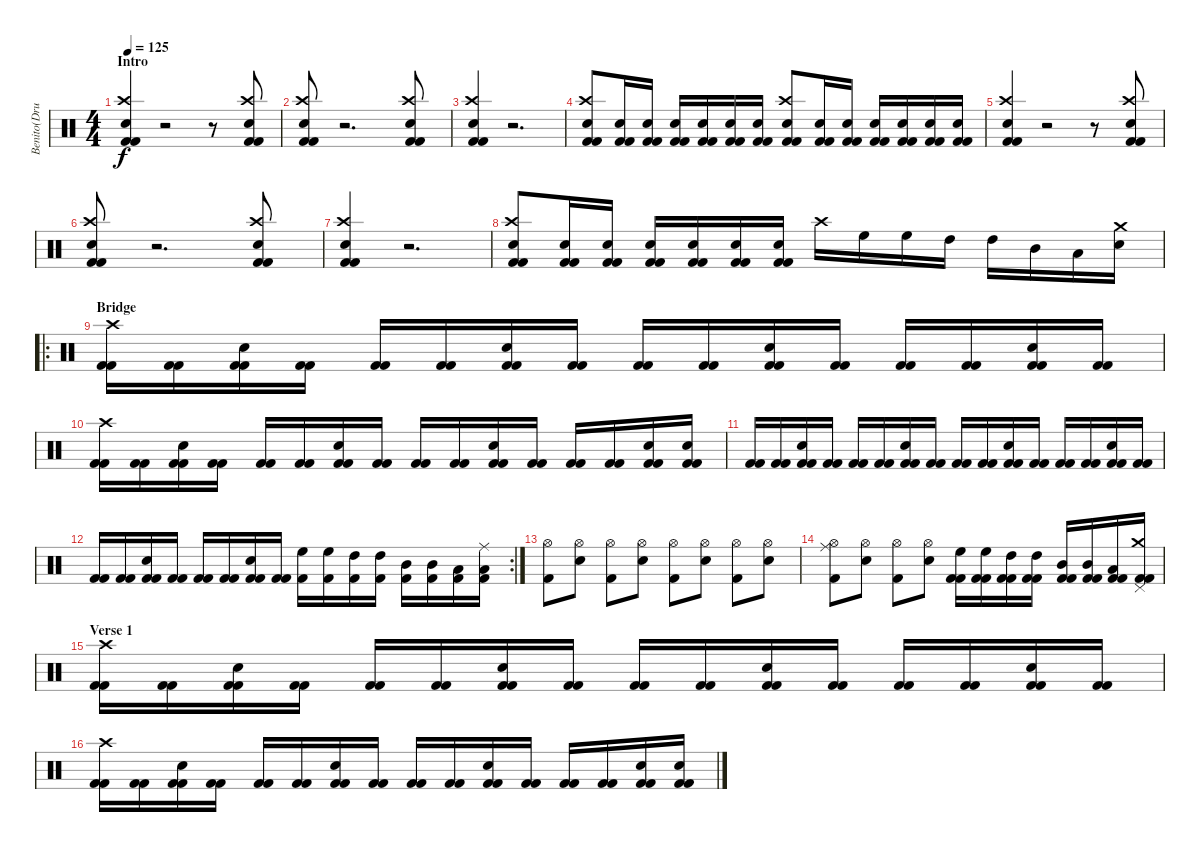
\track ("Benito(Drums)" "Benito(Dru") {instrument percussion}
\staff {score}
\articulation defaults
\ts (4 4)
\section ("" "Intro")
\tempo 125
\clef neutral
\ks c
("Kick (hit) 2" "Kick (hit) 2" "Crash high (hit)" "Electric Snare (hit)").4{dy f} r.2 r.8 ("Kick (hit) 2" "Kick (hit) 2" "Crash high (hit)" "Electric Snare (hit)").8 |
("Kick (hit) 2" "Kick (hit) 2" "Crash high (hit)" "Electric Snare (hit)").8 r.2{d} ("Kick (hit) 2" "Kick (hit) 2" "Crash high (hit)" "Electric Snare (hit)").8 |
("Kick (hit) 2" "Kick (hit) 2" "Crash high (hit)" "Snare (hit) 2").4 r.2{d} |
("Kick (hit) 2" "Kick (hit) 2" "Crash high (hit)" "Electric Snare (hit)").8 ("Kick (hit) 2" "Kick (hit) 2" "Electric Snare (hit)").16 ("Kick (hit) 2" "Kick (hit) 2" "Electric Snare (hit)").16 ("Kick (hit) 2" "Kick (hit) 2" "Electric Snare (hit)").16 ("Kick (hit) 2" "Kick (hit) 2" "Electric Snare (hit)").16 ("Kick (hit) 2" "Kick (hit) 2" "Electric Snare (hit)").16 ("Kick (hit) 2" "Kick (hit) 2" "Electric Snare (hit)").16 ("Kick (hit) 2" "Kick (hit) 2" "Crash high (hit)" "Electric Snare (hit)").8 ("Kick (hit) 2" "Kick (hit) 2" "Electric Snare (hit)").16 ("Kick (hit) 2" "Kick (hit) 2" "Electric Snare (hit)").16 ("Kick (hit) 2" "Kick (hit) 2" "Electric Snare (hit)").16 ("Kick (hit) 2" "Kick (hit) 2" "Electric Snare (hit)").16 ("Kick (hit) 2" "Kick (hit) 2" "Electric Snare (hit)").16 ("Kick (hit) 2" "Kick (hit) 2" "Electric Snare (hit)").16 |
("Kick (hit) 2" "Kick (hit) 2" "Crash high (hit)" "Electric Snare (hit)").4 r.2 r.8 ("Kick (hit) 2" "Kick (hit) 2" "Crash high (hit)" "Electric Snare (hit)").8 |
("Kick (hit) 2" "Kick (hit) 2" "Crash high (hit)" "Electric Snare (hit)").8 r.2{d} ("Kick (hit) 2" "Kick (hit) 2" "Crash high (hit)" "Electric Snare (hit)").8 |
("Kick (hit) 2" "Kick (hit) 2" "Crash high (hit)" "Snare (hit) 2").4 r.2{d} |
("Kick (hit) 2" "Kick (hit) 2" "Crash high (hit)" "Snare (hit) 2").8 ("Kick (hit) 2" "Kick (hit) 2" "Snare (hit) 2").16 ("Kick (hit) 2" "Kick (hit) 2" "Snare (hit) 2").16 ("Kick (hit) 2" "Kick (hit) 2" "Snare (hit) 2").16 ("Kick (hit) 2" "Kick (hit) 2" "Snare (hit) 2").16 ("Kick (hit) 2" "Kick (hit) 2" "Snare (hit) 2").16 ("Kick (hit) 2" "Kick (hit) 2" "Snare (hit) 2").16 "Crash high (hit)".16 "High Floor Tom (hit)".16 "High Floor Tom (hit)".16 "High Tom (hit)".16 "High Tom (hit)".16 "Mid Tom (hit)".16 "Low Tom (hit)".16 ("Electric Snare (hit)" "Crash medium (hit)").16 |
\ro
\section ("" "Bridge")
("Kick (hit) 2" "Kick (hit) 2" "Crash high (hit)").16 ("Kick (hit) 2" "Kick (hit) 2").16 ("Kick (hit) 2" "Kick (hit) 2" "Electric Snare (hit)").16 ("Kick (hit) 2" "Kick (hit) 2").16 ("Kick (hit) 2" "Kick (hit) 2").16 ("Kick (hit) 2" "Kick (hit) 2").16 ("Kick (hit) 2" "Kick (hit) 2" "Electric Snare (hit)").16 ("Kick (hit) 2" "Kick (hit) 2").16 ("Kick (hit) 2" "Kick (hit) 2").16 ("Kick (hit) 2" "Kick (hit) 2").16 ("Kick (hit) 2" "Kick (hit) 2" "Electric Snare (hit)").16 ("Kick (hit) 2" "Kick (hit) 2").16 ("Kick (hit) 2" "Kick (hit) 2").16 ("Kick (hit) 2" "Kick (hit) 2").16 ("Kick (hit) 2" "Kick (hit) 2" "Electric Snare (hit)").16 ("Kick (hit) 2" "Kick (hit) 2").16 |
("Kick (hit) 2" "Kick (hit) 2" "Crash high (hit)").16 ("Kick (hit) 2" "Kick (hit) 2").16 ("Kick (hit) 2" "Kick (hit) 2" "Electric Snare (hit)").16 ("Kick (hit) 2" "Kick (hit) 2").16 ("Kick (hit) 2" "Kick (hit) 2").16 ("Kick (hit) 2" "Kick (hit) 2").16 ("Kick (hit) 2" "Kick (hit) 2" "Electric Snare (hit)").16 ("Kick (hit) 2" "Kick (hit) 2").16 ("Kick (hit) 2" "Kick (hit) 2").16 ("Kick (hit) 2" "Kick (hit) 2").16 ("Kick (hit) 2" "Kick (hit) 2" "Electric Snare (hit)").16 ("Kick (hit) 2" "Kick (hit) 2").16 ("Kick (hit) 2" "Kick (hit) 2").16 ("Kick (hit) 2" "Kick (hit) 2").16 ("Kick (hit) 2" "Kick (hit) 2" "Electric Snare (hit)").16 ("Kick (hit) 2" "Kick (hit) 2" "Electric Snare (hit)").16 |
("Kick (hit) 2" "Kick (hit) 2").16 ("Kick (hit) 2" "Kick (hit) 2").16 ("Kick (hit) 2" "Kick (hit) 2" "Electric Snare (hit)").16 ("Kick (hit) 2" "Kick (hit) 2").16 ("Kick (hit) 2" "Kick (hit) 2").16 ("Kick (hit) 2" "Kick (hit) 2").16 ("Kick (hit) 2" "Kick (hit) 2" "Electric Snare (hit)").16 ("Kick (hit) 2" "Kick (hit) 2").16 ("Kick (hit) 2" "Kick (hit) 2").16 ("Kick (hit) 2" "Kick (hit) 2").16 ("Kick (hit) 2" "Kick (hit) 2" "Electric Snare (hit)").16 ("Kick (hit) 2" "Kick (hit) 2").16 ("Kick (hit) 2" "Kick (hit) 2").16 ("Kick (hit) 2" "Kick (hit) 2").16 ("Kick (hit) 2" "Kick (hit) 2" "Electric Snare (hit)").16 ("Kick (hit) 2" "Kick (hit) 2").16 |
\rc 2
("Kick (hit) 2" "Kick (hit) 2").16 ("Kick (hit) 2" "Kick (hit) 2").16 ("Kick (hit) 2" "Kick (hit) 2" "Electric Snare (hit)").16 ("Kick (hit) 2" "Kick (hit) 2").16 ("Kick (hit) 2" "Kick (hit) 2").16 ("Kick (hit) 2" "Kick (hit) 2").16 ("Kick (hit) 2" "Kick (hit) 2" "Electric Snare (hit)").16 ("Kick (hit) 2" "Kick (hit) 2").16 ("Kick (hit) 2" "High Floor Tom (hit)").16 ("Kick (hit) 2" "High Floor Tom (hit)").16 ("Kick (hit) 2" "High Tom (hit)").16 ("Kick (hit) 2" "High Tom (hit)").16 ("Kick (hit) 2" "Mid Tom (hit)").16 ("Kick (hit) 2" "Mid Tom (hit)").16 ("Kick (hit) 2" "Low Tom (hit)").16 ("Kick (hit) 2" "Low Tom (hit)" "Ride (middle)").16 |
("Kick (hit) 2" "Hi-Hat (open)").8 ("Hi-Hat (open)" "Electric Snare (hit)").8 ("Kick (hit) 2" "Hi-Hat (open)").8 ("Hi-Hat (open)" "Electric Snare (hit)").8 ("Kick (hit) 2" "Hi-Hat (open)").8 ("Hi-Hat (open)" "Electric Snare (hit)").8 ("Kick (hit) 2" "Hi-Hat (open)").8 ("Hi-Hat (open)" "Electric Snare (hit)").8 |
("Kick (hit) 2" "Hi-Hat (open)" "Ride (middle)").8 ("Hi-Hat (open)" "Snare (hit) 2").8 ("Kick (hit) 2" "Hi-Hat (open)").8 ("Hi-Hat (open)" "Snare (hit) 2").8 ("Kick (hit) 2" "Kick (hit) 2" "High Floor Tom (hit)").16 ("Kick (hit) 2" "Kick (hit) 2" "High Floor Tom (hit)").16 ("Kick (hit) 2" "Kick (hit) 2" "High Tom (hit)").16 ("Kick (hit) 2" "Kick (hit) 2" "High Tom (hit)").16 ("Kick (hit) 2" "Kick (hit) 2" "Mid Tom (hit)").16 ("Kick (hit) 2" "Kick (hit) 2" "Mid Tom (hit)").16 ("Kick (hit) 2" "Kick (hit) 2" "Low Tom (hit)").16 ("Kick (hit) 2" "Kick (hit) 2" "Pedal Hi-Hat (hit)" "Crash medium (hit)").16 |
\section ("" "Verse 1")
("Kick (hit) 2" "Kick (hit) 2" "Crash high (hit)").16 ("Kick (hit) 2" "Kick (hit) 2").16 ("Kick (hit) 2" "Kick (hit) 2" "Electric Snare (hit)").16 ("Kick (hit) 2" "Kick (hit) 2").16 ("Kick (hit) 2" "Kick (hit) 2").16 ("Kick (hit) 2" "Kick (hit) 2").16 ("Kick (hit) 2" "Kick (hit) 2" "Electric Snare (hit)").16 ("Kick (hit) 2" "Kick (hit) 2").16 ("Kick (hit) 2" "Kick (hit) 2").16 ("Kick (hit) 2" "Kick (hit) 2").16 ("Kick (hit) 2" "Kick (hit) 2" "Electric Snare (hit)").16 ("Kick (hit) 2" "Kick (hit) 2").16 ("Kick (hit) 2" "Kick (hit) 2").16 ("Kick (hit) 2" "Kick (hit) 2").16 ("Kick (hit) 2" "Kick (hit) 2" "Electric Snare (hit)").16 ("Kick (hit) 2" "Kick (hit) 2").16 |
("Kick (hit) 2" "Kick (hit) 2" "Crash high (hit)").16 ("Kick (hit) 2" "Kick (hit) 2").16 ("Kick (hit) 2" "Kick (hit) 2" "Electric Snare (hit)").16 ("Kick (hit) 2" "Kick (hit) 2").16 ("Kick (hit) 2" "Kick (hit) 2").16 ("Kick (hit) 2" "Kick (hit) 2").16 ("Kick (hit) 2" "Kick (hit) 2" "Electric Snare (hit)").16 ("Kick (hit) 2" "Kick (hit) 2").16 ("Kick (hit) 2" "Kick (hit) 2").16 ("Kick (hit) 2" "Kick (hit) 2").16 ("Kick (hit) 2" "Kick (hit) 2" "Electric Snare (hit)").16 ("Kick (hit) 2" "Kick (hit) 2").16 ("Kick (hit) 2" "Kick (hit) 2").16 ("Kick (hit) 2" "Kick (hit) 2").16 ("Kick (hit) 2" "Kick (hit) 2" "Electric Snare (hit)").16 ("Kick (hit) 2" "Kick (hit) 2" "Electric Snare (hit)").16
